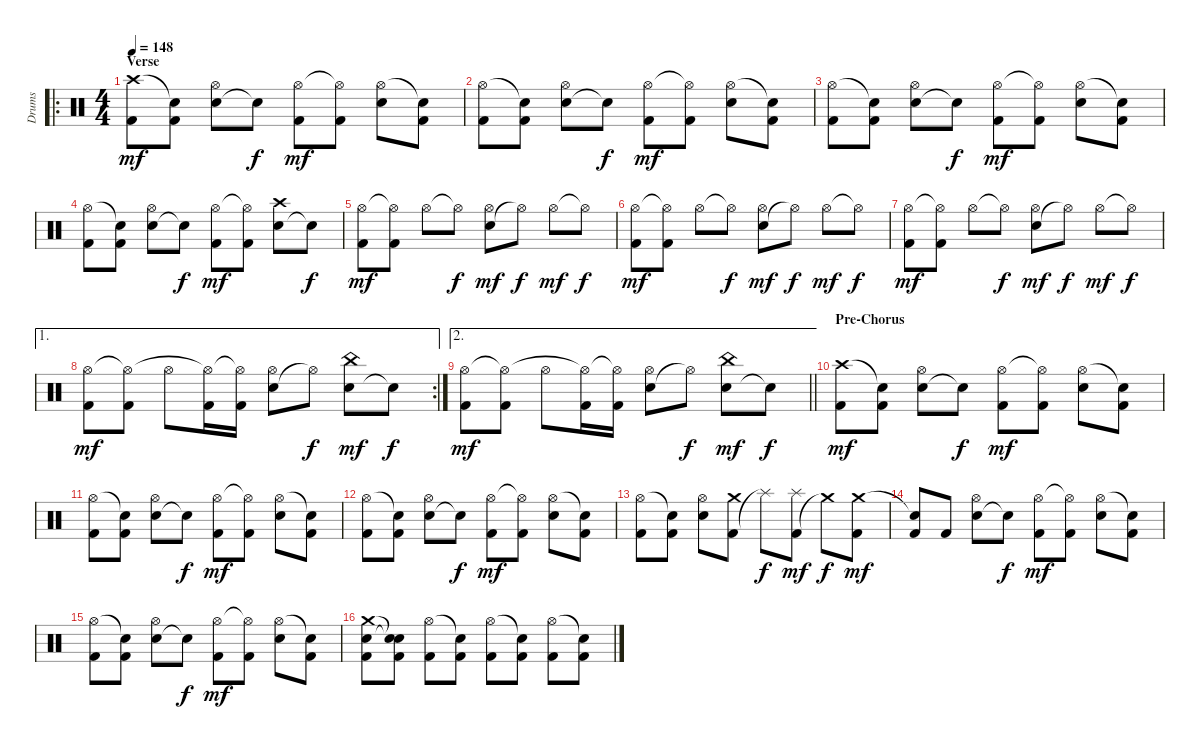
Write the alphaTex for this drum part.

\track ("Drums" "Drums") {instrument percussion}
\staff {score}
\articulation defaults
\ro
\ts (4 4)
\section ("" "Verse")
\tempo 148
\clef neutral
\ks c
("Kick (hit) 2" "Crash high (hit)").8{dy mf} ("Kick (hit) 2" "Snare (hit)"{t}).8 ("Snare (hit) 2" "Hi-Hat (open)").8 "Snare (hit)"{t}.8{dy f} ("Kick (hit) 2" "Hi-Hat (open)").8{dy mf} ("Kick (hit) 2" "Hi-Hat (open)"{t}).8 ("Snare (hit) 2" "Hi-Hat (open)").8 ("Kick (hit) 2" "Snare (hit)"{t}).8 |
("Kick (hit) 2" "Hi-Hat (open)").8 ("Kick (hit) 2" "Snare (hit)"{t}).8 ("Snare (hit) 2" "Hi-Hat (open)").8 "Snare (hit)"{t}.8{dy f} ("Kick (hit) 2" "Hi-Hat (open)").8{dy mf} ("Kick (hit) 2" "Hi-Hat (open)"{t}).8 ("Snare (hit) 2" "Hi-Hat (open)").8 ("Kick (hit) 2" "Snare (hit)"{t}).8 |
("Kick (hit) 2" "Hi-Hat (open)").8 ("Kick (hit) 2" "Snare (hit)"{t}).8 ("Snare (hit) 2" "Hi-Hat (open)").8 "Snare (hit)"{t}.8{dy f} ("Kick (hit) 2" "Hi-Hat (open)").8{dy mf} ("Kick (hit) 2" "Hi-Hat (open)"{t}).8 ("Snare (hit) 2" "Hi-Hat (open)").8 ("Kick (hit) 2" "Snare (hit)"{t}).8 |
("Kick (hit) 2" "Hi-Hat (open)").8 ("Kick (hit) 2" "Snare (hit)"{t}).8 ("Snare (hit) 2" "Hi-Hat (open)").8 "Snare (hit)"{t}.8{dy f} ("Kick (hit) 2" "Hi-Hat (open)").8{dy mf} ("Kick (hit) 2" "Hi-Hat (open)"{t}).8 ("Snare (hit) 2" "Crash high (hit)").8 "Snare (hit)"{t}.8{dy f} |
("Kick (hit) 2" "Hi-Hat (open)").8{dy mf} ("Kick (hit) 2" "Hi-Hat (open)"{t}).8 "Hi-Hat (open)".8 "Hi-Hat (open)"{t}.8{dy f} ("Snare (hit) 2" "Hi-Hat (open)").8{dy mf} "Hi-Hat (open)"{t}.8{dy f} "Hi-Hat (open)".8{dy mf} "Hi-Hat (open)"{t}.8{dy f} |
("Kick (hit) 2" "Hi-Hat (open)").8{dy mf} ("Kick (hit) 2" "Hi-Hat (open)"{t}).8 "Hi-Hat (open)".8 "Hi-Hat (open)"{t}.8{dy f} ("Snare (hit) 2" "Hi-Hat (open)").8{dy mf} "Hi-Hat (open)"{t}.8{dy f} "Hi-Hat (open)".8{dy mf} "Hi-Hat (open)"{t}.8{dy f} |
("Kick (hit) 2" "Hi-Hat (open)").8{dy mf} ("Kick (hit) 2" "Hi-Hat (open)"{t}).8 "Hi-Hat (open)".8 "Hi-Hat (open)"{t}.8{dy f} ("Snare (hit) 2" "Hi-Hat (open)").8{dy mf} "Hi-Hat (open)"{t}.8{dy f} "Hi-Hat (open)".8{dy mf} "Hi-Hat (open)"{t}.8{dy f} |
\ae 1
\rc 2
("Kick (hit) 2" "Hi-Hat (open)").8{dy mf} ("Kick (hit) 2" "Hi-Hat (open)"{t}).8 "Hi-Hat (open)".8 ("Kick (hit) 2" "Hi-Hat (open)"{t}).16 ("Kick (hit) 2" "Hi-Hat (open)"{t}).16 ("Snare (hit) 2" "Hi-Hat (open)").8 "Hi-Hat (open)"{t}.8{dy f} ("Snare (hit) 2" "China (hit)").8{dy mf} "Snare (hit)"{t}.8{dy f} |
\ae 2
\barLineRight lightlight
("Kick (hit) 2" "Hi-Hat (open)").8{dy mf} ("Kick (hit) 2" "Hi-Hat (open)"{t}).8 "Hi-Hat (open)".8 ("Kick (hit) 2" "Hi-Hat (open)"{t}).16 ("Kick (hit) 2" "Hi-Hat (open)"{t}).16 ("Snare (hit) 2" "Hi-Hat (open)").8 "Hi-Hat (open)"{t}.8{dy f} ("Snare (hit) 2" "China (hit)").8{dy mf} "Snare (hit)"{t}.8{dy f} |
\section ("" "Pre-Chorus")
("Kick (hit) 2" "Crash high (hit)").8{dy mf} ("Kick (hit) 2" "Snare (hit)"{t}).8 ("Snare (hit) 2" "Hi-Hat (open)").8 "Snare (hit)"{t}.8{dy f} ("Kick (hit) 2" "Hi-Hat (open)").8{dy mf} ("Kick (hit) 2" "Hi-Hat (open)"{t}).8 ("Snare (hit) 2" "Hi-Hat (open)").8 ("Kick (hit) 2" "Snare (hit)"{t}).8 |
("Kick (hit) 2" "Hi-Hat (open)").8 ("Kick (hit) 2" "Snare (hit)"{t}).8 ("Snare (hit) 2" "Hi-Hat (open)").8 "Snare (hit)"{t}.8{dy f} ("Kick (hit) 2" "Hi-Hat (open)").8{dy mf} ("Kick (hit) 2" "Hi-Hat (open)"{t}).8 ("Snare (hit) 2" "Hi-Hat (open)").8 ("Kick (hit) 2" "Snare (hit)"{t}).8 |
("Kick (hit) 2" "Hi-Hat (open)").8 ("Kick (hit) 2" "Snare (hit)"{t}).8 ("Snare (hit) 2" "Hi-Hat (open)").8 "Snare (hit)"{t}.8{dy f} ("Kick (hit) 2" "Hi-Hat (open)").8{dy mf} ("Kick (hit) 2" "Hi-Hat (open)"{t}).8 ("Snare (hit) 2" "Hi-Hat (open)").8 ("Kick (hit) 2" "Snare (hit)"{t}).8 |
("Kick (hit) 2" "Hi-Hat (open)").8 ("Kick (hit) 2" "Snare (hit)"{t}).8 ("Snare (hit) 2" "Hi-Hat (open)").8 ("Kick (hit) 2" "Crash medium (hit)").8 "Splash (hit)"{t}.8{dy f} ("Kick (hit) 2" "Splash (hit)").8{dy mf} "Crash medium (hit)"{t}.8{dy f} ("Kick (hit) 2" "Crash medium (hit)").8{dy mf} |
("Kick (hit) 2" "Snare (hit)"{t}).8 "Kick (hit) 2".8 ("Snare (hit) 2" "Hi-Hat (open)").8 "Snare (hit)"{t}.8{dy f} ("Kick (hit) 2" "Hi-Hat (open)").8{dy mf} ("Kick (hit) 2" "Hi-Hat (open)"{t}).8 ("Snare (hit) 2" "Hi-Hat (open)").8 ("Kick (hit) 2" "Snare (hit)"{t}).8 |
("Kick (hit) 2" "Hi-Hat (open)").8 ("Kick (hit) 2" "Snare (hit)"{t}).8 ("Snare (hit) 2" "Hi-Hat (open)").8 "Snare (hit)"{t}.8{dy f} ("Kick (hit) 2" "Hi-Hat (open)").8{dy mf} ("Kick (hit) 2" "Hi-Hat (open)"{t}).8 ("Snare (hit) 2" "Hi-Hat (open)").8 ("Kick (hit) 2" "Snare (hit)"{t}).8 |
("Kick (hit) 2" "Snare (hit) 2" "Crash medium (hit)").8 ("Kick (hit) 2" "Snare (hit)"{t} "Snare (hit)"{t}).8 ("Kick (hit) 2" "Hi-Hat (open)").8 ("Kick (hit) 2" "Snare (hit)"{t}).8 ("Kick (hit) 2" "Hi-Hat (open)").8 ("Kick (hit) 2" "Snare (hit)"{t}).8 ("Kick (hit) 2" "Hi-Hat (open)").8 ("Kick (hit) 2" "Snare (hit)"{t}).8
